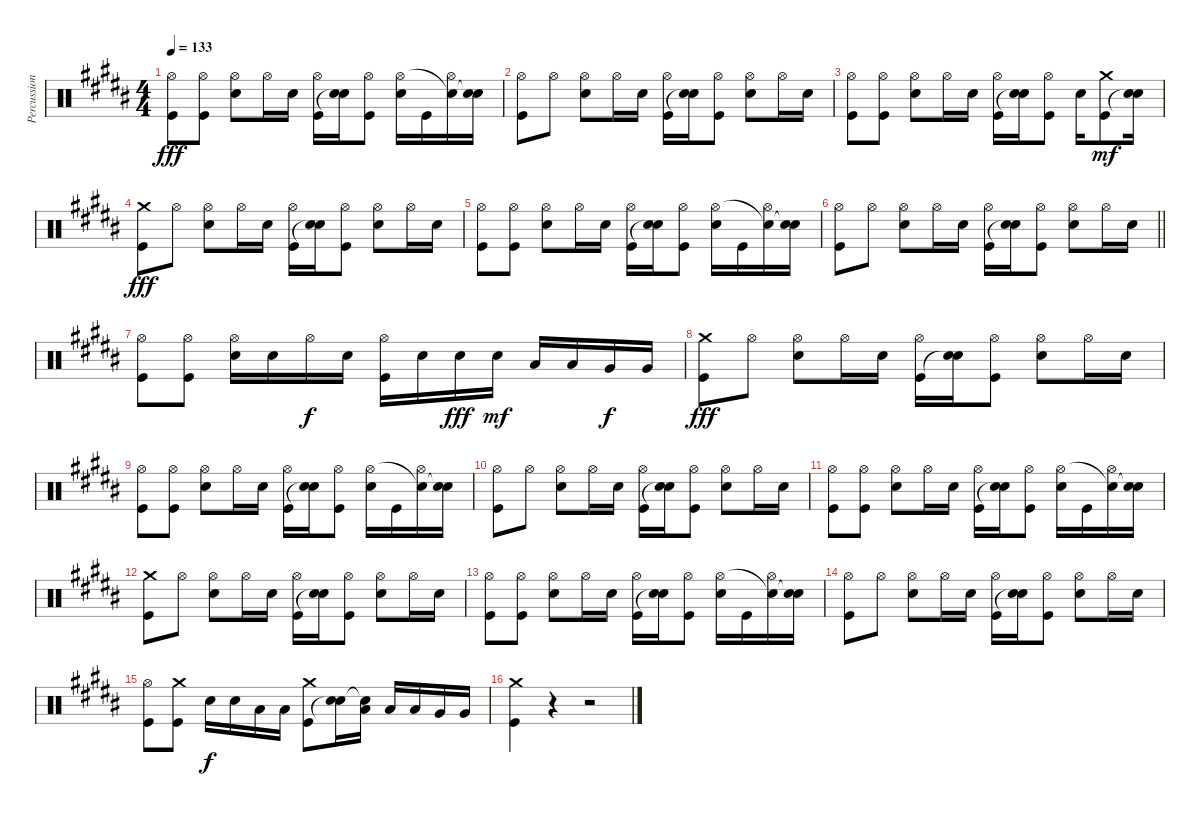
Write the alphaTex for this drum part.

\track ("Percussion" "Percussion") {instrument percussion}
\staff {score}
\articulation defaults
\ts (4 4)
\tempo 133
\clef neutral
\ks b
("Kick (hit)" "Hi-Hat (open)").8{dy fff} ("Kick (hit)" "Hi-Hat (open)").8 ("Electric Snare (hit)" "Hi-Hat (open)").8 "Hi-Hat (open)".16 "Electric Snare (hit)".16 ("Kick (hit)" "Hi-Hat (open)").16 ("Snare (hit)"{t} "Electric Snare (hit)").16 ("Kick (hit)" "Hi-Hat (open)").8 ("Electric Snare (hit)" "Hi-Hat (open)").16 "Kick (hit)".16 ("Hi-Hat (open)" "Snare (hit)"{t}).16 ("Electric Snare (hit)" "Snare (hit)"{t}).16 |
("Hi-Hat (open)" "Kick (hit)").8 "Hi-Hat (open)".8 ("Hi-Hat (open)" "Electric Snare (hit)").8 "Hi-Hat (open)".16 "Electric Snare (hit)".16 ("Hi-Hat (open)" "Kick (hit)").16 ("Electric Snare (hit)" "Snare (hit)"{t}).16 ("Hi-Hat (open)" "Kick (hit)").8 ("Hi-Hat (open)" "Electric Snare (hit)").8 "Hi-Hat (open)".16 "Electric Snare (hit)".16 |
("Kick (hit)" "Hi-Hat (open)").8 ("Kick (hit)" "Hi-Hat (open)").8 ("Electric Snare (hit)" "Hi-Hat (open)").8 "Hi-Hat (open)".16 "Electric Snare (hit)".16 ("Kick (hit)" "Hi-Hat (open)").16 ("Snare (hit)"{t} "Electric Snare (hit)").16 ("Kick (hit)" "Hi-Hat (open)").8 "Electric Snare (hit)".16 ("Crash medium (hit)" "Kick (hit)").8{dy mf} ("Electric Snare (hit)" "Snare (hit)"{t}).16 |
("Crash medium (hit)" "Kick (hit)").8{dy fff} "Hi-Hat (open)".8 ("Hi-Hat (open)" "Electric Snare (hit)").8 "Hi-Hat (open)".16 "Electric Snare (hit)".16 ("Hi-Hat (open)" "Kick (hit)").16 ("Electric Snare (hit)" "Snare (hit)"{t}).16 ("Hi-Hat (open)" "Kick (hit)").8 ("Hi-Hat (open)" "Electric Snare (hit)").8 "Hi-Hat (open)".16 "Electric Snare (hit)".16 |
("Kick (hit)" "Hi-Hat (open)").8 ("Kick (hit)" "Hi-Hat (open)").8 ("Electric Snare (hit)" "Hi-Hat (open)").8 "Hi-Hat (open)".16 "Electric Snare (hit)".16 ("Kick (hit)" "Hi-Hat (open)").16 ("Snare (hit)"{t} "Electric Snare (hit)").16 ("Kick (hit)" "Hi-Hat (open)").8 ("Electric Snare (hit)" "Hi-Hat (open)").16 "Kick (hit)".16 ("Hi-Hat (open)" "Snare (hit)"{t}).16 ("Electric Snare (hit)" "Snare (hit)"{t}).16 |
\barLineRight lightlight
("Hi-Hat (open)" "Kick (hit)").8 "Hi-Hat (open)".8 ("Hi-Hat (open)" "Electric Snare (hit)").8 "Hi-Hat (open)".16 "Electric Snare (hit)".16 ("Hi-Hat (open)" "Kick (hit)").16 ("Electric Snare (hit)" "Snare (hit)"{t}).16 ("Hi-Hat (open)" "Kick (hit)").8 ("Hi-Hat (open)" "Electric Snare (hit)").8 "Hi-Hat (open)".16 "Electric Snare (hit)".16 |
("Kick (hit)" "Hi-Hat (open)").8 ("Kick (hit)" "Hi-Hat (open)").8 ("Electric Snare (hit)" "Hi-Hat (open)").16 "Electric Snare (hit)".16 "Hi-Hat (open)".16{dy f} "Electric Snare (hit)".16 ("Kick (hit)" "Hi-Hat (open)").16 "Electric Snare (hit)".16 "Electric Snare (hit)".16{dy fff} "Electric Snare (hit)".16{dy mf} "Low Tom (hit)".16 "Low Tom (hit)".16 "Very Low Tom (hit)".16{dy f} "Very Low Tom (hit)".16 |
("Crash medium (hit)" "Kick (hit)").8{dy fff} "Hi-Hat (open)".8 ("Hi-Hat (open)" "Electric Snare (hit)").8 "Hi-Hat (open)".16 "Electric Snare (hit)".16 ("Hi-Hat (open)" "Kick (hit)").16 ("Electric Snare (hit)" "Snare (hit)"{t}).16 ("Hi-Hat (open)" "Kick (hit)").8 ("Hi-Hat (open)" "Electric Snare (hit)").8 "Hi-Hat (open)".16 "Electric Snare (hit)".16 |
("Kick (hit)" "Hi-Hat (open)").8 ("Kick (hit)" "Hi-Hat (open)").8 ("Electric Snare (hit)" "Hi-Hat (open)").8 "Hi-Hat (open)".16 "Electric Snare (hit)".16 ("Kick (hit)" "Hi-Hat (open)").16 ("Snare (hit)"{t} "Electric Snare (hit)").16 ("Kick (hit)" "Hi-Hat (open)").8 ("Electric Snare (hit)" "Hi-Hat (open)").16 "Kick (hit)".16 ("Hi-Hat (open)" "Snare (hit)"{t}).16 ("Electric Snare (hit)" "Snare (hit)"{t}).16 |
("Hi-Hat (open)" "Kick (hit)").8 "Hi-Hat (open)".8 ("Hi-Hat (open)" "Electric Snare (hit)").8 "Hi-Hat (open)".16 "Electric Snare (hit)".16 ("Hi-Hat (open)" "Kick (hit)").16 ("Electric Snare (hit)" "Snare (hit)"{t}).16 ("Hi-Hat (open)" "Kick (hit)").8 ("Hi-Hat (open)" "Electric Snare (hit)").8 "Hi-Hat (open)".16 "Electric Snare (hit)".16 |
("Kick (hit)" "Hi-Hat (open)").8 ("Kick (hit)" "Hi-Hat (open)").8 ("Electric Snare (hit)" "Hi-Hat (open)").8 "Hi-Hat (open)".16 "Electric Snare (hit)".16 ("Kick (hit)" "Hi-Hat (open)").16 ("Snare (hit)"{t} "Electric Snare (hit)").16 ("Kick (hit)" "Hi-Hat (open)").8 ("Electric Snare (hit)" "Hi-Hat (open)").16 "Kick (hit)".16 ("Hi-Hat (open)" "Snare (hit)"{t}).16 ("Electric Snare (hit)" "Snare (hit)"{t}).16 |
("Crash medium (hit)" "Kick (hit)").8 "Hi-Hat (open)".8 ("Hi-Hat (open)" "Electric Snare (hit)").8 "Hi-Hat (open)".16 "Electric Snare (hit)".16 ("Hi-Hat (open)" "Kick (hit)").16 ("Electric Snare (hit)" "Snare (hit)"{t}).16 ("Hi-Hat (open)" "Kick (hit)").8 ("Hi-Hat (open)" "Electric Snare (hit)").8 "Hi-Hat (open)".16 "Electric Snare (hit)".16 |
("Kick (hit)" "Hi-Hat (open)").8 ("Kick (hit)" "Hi-Hat (open)").8 ("Electric Snare (hit)" "Hi-Hat (open)").8 "Hi-Hat (open)".16 "Electric Snare (hit)".16 ("Kick (hit)" "Hi-Hat (open)").16 ("Snare (hit)"{t} "Electric Snare (hit)").16 ("Kick (hit)" "Hi-Hat (open)").8 ("Electric Snare (hit)" "Hi-Hat (open)").16 "Kick (hit)".16 ("Hi-Hat (open)" "Snare (hit)"{t}).16 ("Electric Snare (hit)" "Snare (hit)"{t}).16 |
("Hi-Hat (open)" "Kick (hit)").8 "Hi-Hat (open)".8 ("Hi-Hat (open)" "Electric Snare (hit)").8 "Hi-Hat (open)".16 "Electric Snare (hit)".16 ("Hi-Hat (open)" "Kick (hit)").16 ("Electric Snare (hit)" "Snare (hit)"{t}).16 ("Hi-Hat (open)" "Kick (hit)").8 ("Hi-Hat (open)" "Electric Snare (hit)").8 "Hi-Hat (open)".16 "Electric Snare (hit)".16 |
("Kick (hit)" "Hi-Hat (open)").8 ("Kick (hit)" "Crash medium (hit)").8 "Electric Snare (hit)".16{dy f} "Electric Snare (hit)".16 "Low Tom (hit)".16 "Low Tom (hit)".16 ("Crash medium (hit)" "Kick (hit)").8 ("Electric Snare (hit)" "Snare (hit)"{t}).16 ("Low Tom (hit)" "Snare (hit)"{t}).16 "Low Tom (hit)".16 "Low Tom (hit)".16 "Very Low Tom (hit)".16 "Very Low Tom (hit)".16 |
("Crash medium (hit)" "Kick (hit)").4 r.4 r.2
